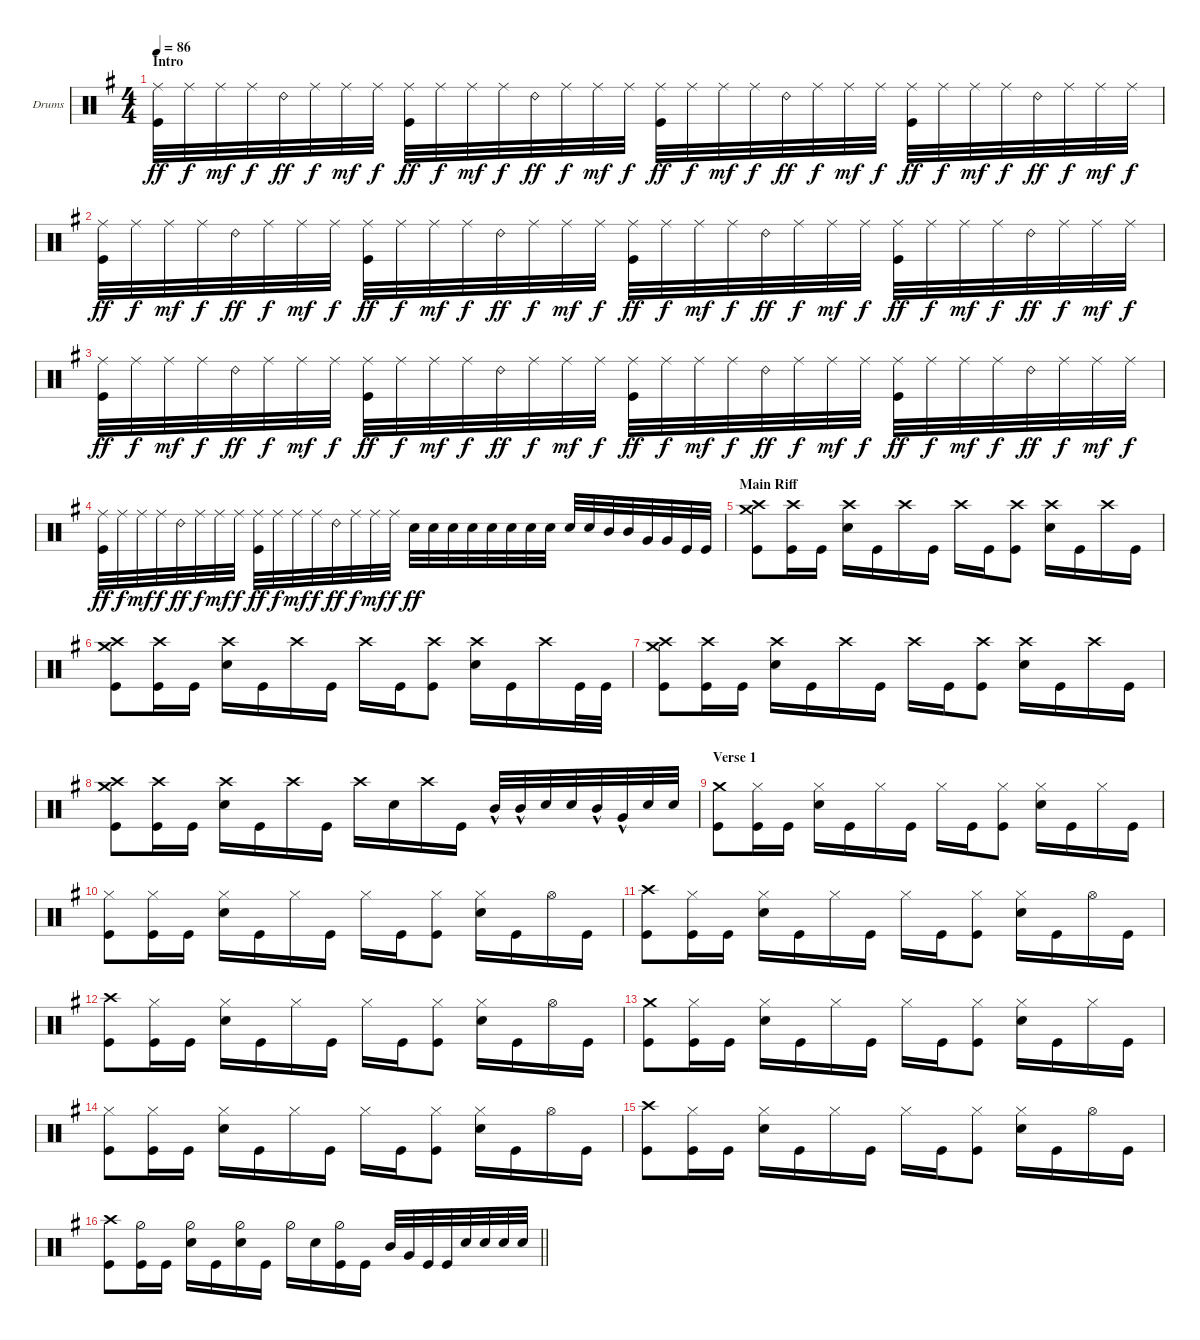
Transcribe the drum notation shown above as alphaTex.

\defaultSystemsLayout 4
\bracketExtendMode groupsimilarinstruments
\firstSystemTrackNameOrientation horizontal
\otherSystemsTrackNameOrientation horizontal
\track ("Drumkit" "Drums") {instrument percussion}
\staff {score}
\articulation defaults
\ts (4 4)
\section ("" "Intro")
\tempo 86
\clef neutral
\ks eminor
("Kick (hit)" "Ride (middle)").32{dy ff} "Ride (middle)".32{dy f} "Ride (middle)".32{dy mf} "Ride (middle)".32{dy f} "Ride (bell) 2".32{dy ff} "Ride (middle)".32{dy f} "Ride (middle)".32{dy mf} "Ride (middle)".32{dy f} ("Kick (hit)" "Ride (middle)").32{dy ff} "Ride (middle)".32{dy f} "Ride (middle)".32{dy mf} "Ride (middle)".32{dy f} "Ride (bell) 2".32{dy ff} "Ride (middle)".32{dy f} "Ride (middle)".32{dy mf} "Ride (middle)".32{dy f} ("Kick (hit)" "Ride (middle)").32{dy ff} "Ride (middle)".32{dy f} "Ride (middle)".32{dy mf} "Ride (middle)".32{dy f} "Ride (bell) 2".32{dy ff} "Ride (middle)".32{dy f} "Ride (middle)".32{dy mf} "Ride (middle)".32{dy f} ("Kick (hit)" "Ride (middle)").32{dy ff} "Ride (middle)".32{dy f} "Ride (middle)".32{dy mf} "Ride (middle)".32{dy f} "Ride (bell) 2".32{dy ff} "Ride (middle)".32{dy f} "Ride (middle)".32{dy mf} "Ride (middle)".32{dy f} |
("Kick (hit)" "Ride (middle)").32{dy ff} "Ride (middle)".32{dy f} "Ride (middle)".32{dy mf} "Ride (middle)".32{dy f} "Ride (bell) 2".32{dy ff} "Ride (middle)".32{dy f} "Ride (middle)".32{dy mf} "Ride (middle)".32{dy f} ("Kick (hit)" "Ride (middle)").32{dy ff} "Ride (middle)".32{dy f} "Ride (middle)".32{dy mf} "Ride (middle)".32{dy f} "Ride (bell) 2".32{dy ff} "Ride (middle)".32{dy f} "Ride (middle)".32{dy mf} "Ride (middle)".32{dy f} ("Kick (hit)" "Ride (middle)").32{dy ff} "Ride (middle)".32{dy f} "Ride (middle)".32{dy mf} "Ride (middle)".32{dy f} "Ride (bell) 2".32{dy ff} "Ride (middle)".32{dy f} "Ride (middle)".32{dy mf} "Ride (middle)".32{dy f} ("Kick (hit)" "Ride (middle)").32{dy ff} "Ride (middle)".32{dy f} "Ride (middle)".32{dy mf} "Ride (middle)".32{dy f} "Ride (bell) 2".32{dy ff} "Ride (middle)".32{dy f} "Ride (middle)".32{dy mf} "Ride (middle)".32{dy f} |
("Kick (hit)" "Ride (middle)").32{dy ff} "Ride (middle)".32{dy f} "Ride (middle)".32{dy mf} "Ride (middle)".32{dy f} "Ride (bell) 2".32{dy ff} "Ride (middle)".32{dy f} "Ride (middle)".32{dy mf} "Ride (middle)".32{dy f} ("Kick (hit)" "Ride (middle)").32{dy ff} "Ride (middle)".32{dy f} "Ride (middle)".32{dy mf} "Ride (middle)".32{dy f} "Ride (bell) 2".32{dy ff} "Ride (middle)".32{dy f} "Ride (middle)".32{dy mf} "Ride (middle)".32{dy f} ("Kick (hit)" "Ride (middle)").32{dy ff} "Ride (middle)".32{dy f} "Ride (middle)".32{dy mf} "Ride (middle)".32{dy f} "Ride (bell) 2".32{dy ff} "Ride (middle)".32{dy f} "Ride (middle)".32{dy mf} "Ride (middle)".32{dy f} ("Kick (hit)" "Ride (middle)").32{dy ff} "Ride (middle)".32{dy f} "Ride (middle)".32{dy mf} "Ride (middle)".32{dy f} "Ride (bell) 2".32{dy ff} "Ride (middle)".32{dy f} "Ride (middle)".32{dy mf} "Ride (middle)".32{dy f} |
("Kick (hit)" "Ride (middle)").32{dy ff} "Ride (middle)".32{dy f} "Ride (middle)".32{dy mf} "Ride (middle)".32{dy f} "Ride (bell) 2".32{dy ff} "Ride (middle)".32{dy f} "Ride (middle)".32{dy mf} "Ride (middle)".32{dy f} ("Kick (hit)" "Ride (middle)").32{dy ff} "Ride (middle)".32{dy f} "Ride (middle)".32{dy mf} "Ride (middle)".32{dy f} "Ride (bell) 2".32{dy ff} "Ride (middle)".32{dy f} "Ride (middle)".32{dy mf} "Ride (middle)".32{dy f} "Snare (hit) 2".32{dy ff} "Snare (hit) 2".32 "Snare (hit) 2".32 "Snare (hit) 2".32 "Snare (hit) 2".32 "Snare (hit) 2".32 "Snare (hit) 2".32 "Snare (hit) 2".32 "Snare (hit) 2".32 "Snare (hit) 2".32 "Mid Tom (hit)".32 "Mid Tom (hit)".32 "Very Low Tom (hit)".32 "Very Low Tom (hit)".32 "Kick (hit)".32 "Kick (hit)".32 |
\section ("" "Main Riff")
("Crash high (hit)" "Kick (hit)" "Crash medium (hit)").8 ("Kick (hit)" "Crash high (hit)").16 "Kick (hit)".16 ("Snare (hit) 2" "Crash high (hit)").16 "Kick (hit)".16 "Crash high (hit)".16 "Kick (hit)".16 "Crash high (hit)".16 "Kick (hit)".16 ("Kick (hit)" "Crash high (hit)").8 ("Snare (hit) 2" "Crash high (hit)").16 "Kick (hit)".16 "Crash high (hit)".16 "Kick (hit)".16 |
("Crash high (hit)" "Kick (hit)" "Crash medium (hit)").8 ("Kick (hit)" "Crash high (hit)").16 "Kick (hit)".16 ("Snare (hit) 2" "Crash high (hit)").16 "Kick (hit)".16 "Crash high (hit)".16 "Kick (hit)".16 "Crash high (hit)".16 "Kick (hit)".16 ("Kick (hit)" "Crash high (hit)").8 ("Snare (hit) 2" "Crash high (hit)").16 "Kick (hit)".16 "Crash high (hit)".16 "Kick (hit)".32 "Kick (hit)".32 |
("Crash high (hit)" "Kick (hit)" "Crash medium (hit)").8 ("Kick (hit)" "Crash high (hit)").16 "Kick (hit)".16 ("Snare (hit) 2" "Crash high (hit)").16 "Kick (hit)".16 "Crash high (hit)".16 "Kick (hit)".16 "Crash high (hit)".16 "Kick (hit)".16 ("Kick (hit)" "Crash high (hit)").8 ("Snare (hit) 2" "Crash high (hit)").16 "Kick (hit)".16 "Crash high (hit)".16 "Kick (hit)".16 |
("Crash high (hit)" "Kick (hit)" "Crash medium (hit)").8 ("Kick (hit)" "Crash high (hit)").16 "Kick (hit)".16 ("Snare (hit) 2" "Crash high (hit)").16 "Kick (hit)".16 "Crash high (hit)".16 "Kick (hit)".16 "Crash high (hit)".16 "Snare (hit) 2".16 "Crash high (hit)".16 "Kick (hit)".16 "Mid Tom (hit)"{hac}.32 "Mid Tom (hit)"{hac}.32 "Snare (hit) 2".32 "Snare (hit) 2".32 "Mid Tom (hit)"{hac}.32 "Very Low Tom (hit)"{hac}.32 "Snare (hit) 2".32 "Snare (hit) 2".32 |
\section ("" "Verse 1")
("Kick (hit)" "Crash medium (hit)").8 ("Kick (hit)" "Hi-Hat (closed)").16 "Kick (hit)".16 ("Snare (hit) 2" "Hi-Hat (closed)").16 "Kick (hit)".16 "Hi-Hat (closed)".16 "Kick (hit)".16 "Hi-Hat (closed)".16 "Kick (hit)".16 ("Kick (hit)" "Hi-Hat (closed)").8 ("Snare (hit) 2" "Hi-Hat (closed)").16 "Kick (hit)".16 "Hi-Hat (closed)".16 "Kick (hit)".16 |
("Kick (hit)" "Hi-Hat (closed)").8 ("Kick (hit)" "Hi-Hat (closed)").16 "Kick (hit)".16 ("Snare (hit) 2" "Hi-Hat (closed)").16 "Kick (hit)".16 "Hi-Hat (closed)".16 "Kick (hit)".16 "Hi-Hat (closed)".16 "Kick (hit)".16 ("Kick (hit)" "Hi-Hat (closed)").8 ("Snare (hit) 2" "Hi-Hat (closed)").16 "Kick (hit)".16 "Hi-Hat (open)".16 "Kick (hit)".16 |
("Kick (hit)" "Crash high (hit)").8 ("Kick (hit)" "Hi-Hat (closed)").16 "Kick (hit)".16 ("Snare (hit) 2" "Hi-Hat (closed)").16 "Kick (hit)".16 "Hi-Hat (closed)".16 "Kick (hit)".16 "Hi-Hat (closed)".16 "Kick (hit)".16 ("Kick (hit)" "Hi-Hat (closed)").8 ("Snare (hit) 2" "Hi-Hat (closed)").16 "Kick (hit)".16 "Hi-Hat (open)".16 "Kick (hit)".16 |
("Kick (hit)" "Crash high (hit)").8 ("Kick (hit)" "Hi-Hat (closed)").16 "Kick (hit)".16 ("Snare (hit) 2" "Hi-Hat (closed)").16 "Kick (hit)".16 "Hi-Hat (closed)".16 "Kick (hit)".16 "Hi-Hat (closed)".16 "Kick (hit)".16 ("Kick (hit)" "Hi-Hat (closed)").8 ("Snare (hit) 2" "Hi-Hat (closed)").16 "Kick (hit)".16 "Hi-Hat (open)".16 "Kick (hit)".16 |
("Kick (hit)" "Crash medium (hit)").8 ("Kick (hit)" "Hi-Hat (closed)").16 "Kick (hit)".16 ("Snare (hit) 2" "Hi-Hat (closed)").16 "Kick (hit)".16 "Hi-Hat (closed)".16 "Kick (hit)".16 "Hi-Hat (closed)".16 "Kick (hit)".16 ("Kick (hit)" "Hi-Hat (closed)").8 ("Snare (hit) 2" "Hi-Hat (closed)").16 "Kick (hit)".16 "Hi-Hat (closed)".16 "Kick (hit)".16 |
("Kick (hit)" "Hi-Hat (closed)").8 ("Kick (hit)" "Hi-Hat (closed)").16 "Kick (hit)".16 ("Snare (hit) 2" "Hi-Hat (closed)").16 "Kick (hit)".16 "Hi-Hat (closed)".16 "Kick (hit)".16 "Hi-Hat (closed)".16 "Kick (hit)".16 ("Kick (hit)" "Hi-Hat (closed)").8 ("Snare (hit) 2" "Hi-Hat (closed)").16 "Kick (hit)".16 "Hi-Hat (open)".16 "Kick (hit)".16 |
("Kick (hit)" "Crash high (hit)").8 ("Kick (hit)" "Hi-Hat (closed)").16 "Kick (hit)".16 ("Snare (hit) 2" "Hi-Hat (closed)").16 "Kick (hit)".16 "Hi-Hat (closed)".16 "Kick (hit)".16 "Hi-Hat (closed)".16 "Kick (hit)".16 ("Kick (hit)" "Hi-Hat (closed)").8 ("Snare (hit) 2" "Hi-Hat (closed)").16 "Kick (hit)".16 "Hi-Hat (open)".16 "Kick (hit)".16 |
\barLineRight lightlight
("Kick (hit)" "Crash high (hit)").8 ("Kick (hit)" "Hi-Hat (half)").16 "Kick (hit)".16 ("Snare (hit) 2" "Hi-Hat (half)").16 "Kick (hit)".16 ("Hi-Hat (half)" "Snare (hit) 2").16 "Kick (hit)".16 "Hi-Hat (half)".16 "Snare (hit) 2".16 ("Kick (hit)" "Hi-Hat (half)").16 "Kick (hit)".16 "Mid Tom (hit)".32 "Very Low Tom (hit)".32 "Kick (hit)".32 "Kick (hit)".32 "Snare (hit) 2".32 "Snare (hit) 2".32 "Snare (hit) 2".32 "Snare (hit) 2".32
